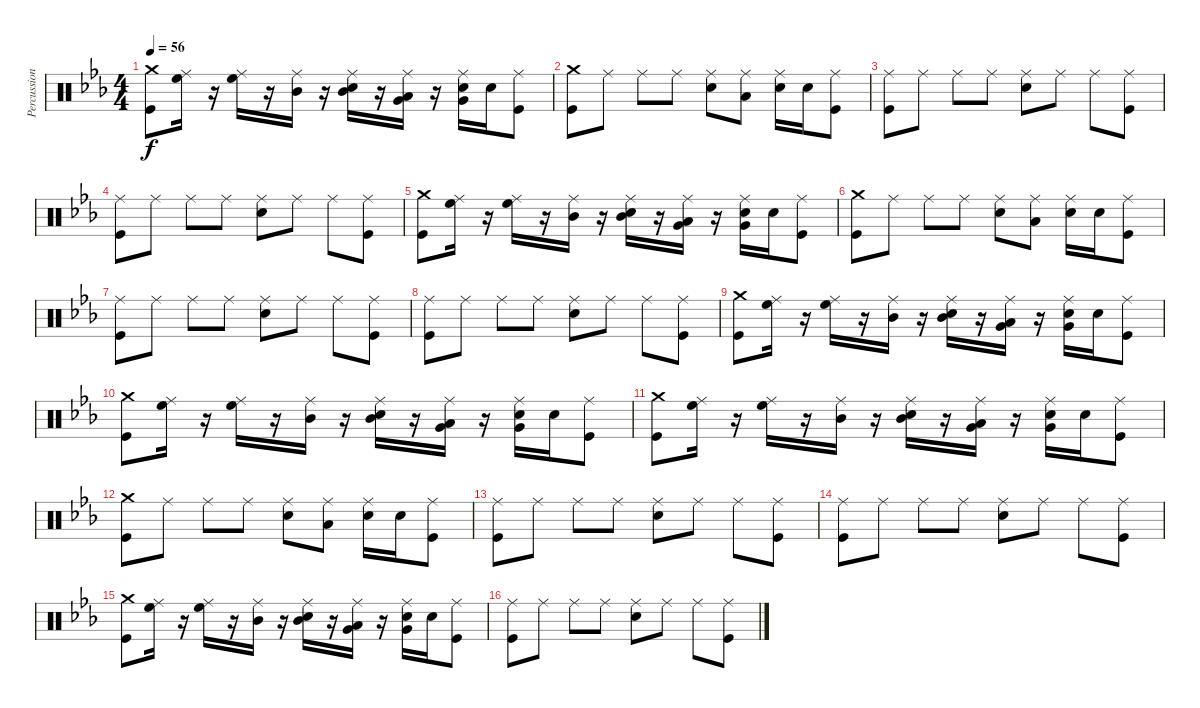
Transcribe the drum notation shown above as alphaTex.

\track ("Percussion" "Percussion") {instrument percussion}
\staff {score}
\articulation defaults
\ts (4 4)
\tempo 56
\clef neutral
\ks eb
("Crash medium (hit)" "Kick (hit)").8{dy f} ("High Floor Tom (hit)" "Ride (middle)").16 r.16 ("High Floor Tom (hit)" "Ride (middle)").16 r.16 ("Mid Tom (hit)" "Ride (middle)").16 r.16 ("Mid Tom (hit)" "Snare (hit) 2" "Ride (middle)").16 r.16 ("Very Low Tom (hit)" "Low Floor Tom (hit)" "Ride (middle)").16 r.16 ("Very Low Tom (hit)" "Snare (hit) 2" "Ride (middle)").16 "Snare (hit) 2".16 ("Kick (hit)" "Ride (middle)").8 |
("Crash medium (hit)" "Kick (hit)").8 "Ride (middle)".8 "Ride (middle)".8 "Ride (middle)".8 ("Snare (hit) 2" "Ride (middle)").8 ("Low Floor Tom (hit)" "Ride (middle)").8 ("Snare (hit) 2" "Ride (middle)").16 "Snare (hit) 2".16 ("Kick (hit)" "Ride (middle)").8 |
("Ride (middle)" "Kick (hit)").8 "Ride (middle)".8 "Ride (middle)".8 "Ride (middle)".8 ("Snare (hit) 2" "Ride (middle)").8 "Ride (middle)".8 "Ride (middle)".8 ("Kick (hit)" "Ride (middle)").8 |
("Ride (middle)" "Kick (hit)").8 "Ride (middle)".8 "Ride (middle)".8 "Ride (middle)".8 ("Snare (hit) 2" "Ride (middle)").8 "Ride (middle)".8 "Ride (middle)".8 ("Kick (hit)" "Ride (middle)").8 |
("Crash medium (hit)" "Kick (hit)").8 ("High Floor Tom (hit)" "Ride (middle)").16 r.16 ("High Floor Tom (hit)" "Ride (middle)").16 r.16 ("Mid Tom (hit)" "Ride (middle)").16 r.16 ("Mid Tom (hit)" "Snare (hit) 2" "Ride (middle)").16 r.16 ("Very Low Tom (hit)" "Low Floor Tom (hit)" "Ride (middle)").16 r.16 ("Very Low Tom (hit)" "Snare (hit) 2" "Ride (middle)").16 "Snare (hit) 2".16 ("Kick (hit)" "Ride (middle)").8 |
("Crash medium (hit)" "Kick (hit)").8 "Ride (middle)".8 "Ride (middle)".8 "Ride (middle)".8 ("Snare (hit) 2" "Ride (middle)").8 ("Low Floor Tom (hit)" "Ride (middle)").8 ("Snare (hit) 2" "Ride (middle)").16 "Snare (hit) 2".16 ("Kick (hit)" "Ride (middle)").8 |
("Ride (middle)" "Kick (hit)").8 "Ride (middle)".8 "Ride (middle)".8 "Ride (middle)".8 ("Snare (hit) 2" "Ride (middle)").8 "Ride (middle)".8 "Ride (middle)".8 ("Kick (hit)" "Ride (middle)").8 |
("Ride (middle)" "Kick (hit)").8 "Ride (middle)".8 "Ride (middle)".8 "Ride (middle)".8 ("Snare (hit) 2" "Ride (middle)").8 "Ride (middle)".8 "Ride (middle)".8 ("Kick (hit)" "Ride (middle)").8 |
("Crash medium (hit)" "Kick (hit)").8 ("High Floor Tom (hit)" "Ride (middle)").16 r.16 ("High Floor Tom (hit)" "Ride (middle)").16 r.16 ("Mid Tom (hit)" "Ride (middle)").16 r.16 ("Mid Tom (hit)" "Snare (hit) 2" "Ride (middle)").16 r.16 ("Very Low Tom (hit)" "Low Floor Tom (hit)" "Ride (middle)").16 r.16 ("Very Low Tom (hit)" "Snare (hit) 2" "Ride (middle)").16 "Snare (hit) 2".16 ("Kick (hit)" "Ride (middle)").8 |
("Crash medium (hit)" "Kick (hit)").8 ("High Floor Tom (hit)" "Ride (middle)").16 r.16 ("High Floor Tom (hit)" "Ride (middle)").16 r.16 ("Mid Tom (hit)" "Ride (middle)").16 r.16 ("Mid Tom (hit)" "Snare (hit) 2" "Ride (middle)").16 r.16 ("Very Low Tom (hit)" "Low Floor Tom (hit)" "Ride (middle)").16 r.16 ("Very Low Tom (hit)" "Snare (hit) 2" "Ride (middle)").16 "Snare (hit) 2".16 ("Kick (hit)" "Ride (middle)").8 |
("Crash medium (hit)" "Kick (hit)").8 ("High Floor Tom (hit)" "Ride (middle)").16 r.16 ("High Floor Tom (hit)" "Ride (middle)").16 r.16 ("Mid Tom (hit)" "Ride (middle)").16 r.16 ("Mid Tom (hit)" "Snare (hit) 2" "Ride (middle)").16 r.16 ("Very Low Tom (hit)" "Low Floor Tom (hit)" "Ride (middle)").16 r.16 ("Very Low Tom (hit)" "Snare (hit) 2" "Ride (middle)").16 "Snare (hit) 2".16 ("Kick (hit)" "Ride (middle)").8 |
("Crash medium (hit)" "Kick (hit)").8 "Ride (middle)".8 "Ride (middle)".8 "Ride (middle)".8 ("Snare (hit) 2" "Ride (middle)").8 ("Low Floor Tom (hit)" "Ride (middle)").8 ("Snare (hit) 2" "Ride (middle)").16 "Snare (hit) 2".16 ("Kick (hit)" "Ride (middle)").8 |
("Ride (middle)" "Kick (hit)").8 "Ride (middle)".8 "Ride (middle)".8 "Ride (middle)".8 ("Snare (hit) 2" "Ride (middle)").8 "Ride (middle)".8 "Ride (middle)".8 ("Kick (hit)" "Ride (middle)").8 |
("Ride (middle)" "Kick (hit)").8 "Ride (middle)".8 "Ride (middle)".8 "Ride (middle)".8 ("Snare (hit) 2" "Ride (middle)").8 "Ride (middle)".8 "Ride (middle)".8 ("Kick (hit)" "Ride (middle)").8 |
("Crash medium (hit)" "Kick (hit)").8 ("High Floor Tom (hit)" "Ride (middle)").16 r.16 ("High Floor Tom (hit)" "Ride (middle)").16 r.16 ("Mid Tom (hit)" "Ride (middle)").16 r.16 ("Mid Tom (hit)" "Snare (hit) 2" "Ride (middle)").16 r.16 ("Very Low Tom (hit)" "Low Floor Tom (hit)" "Ride (middle)").16 r.16 ("Very Low Tom (hit)" "Snare (hit) 2" "Ride (middle)").16 "Snare (hit) 2".16 ("Kick (hit)" "Ride (middle)").8 |
("Ride (middle)" "Kick (hit)").8 "Ride (middle)".8 "Ride (middle)".8 "Ride (middle)".8 ("Snare (hit) 2" "Ride (middle)").8 "Ride (middle)".8 "Ride (middle)".8 ("Kick (hit)" "Ride (middle)").8
